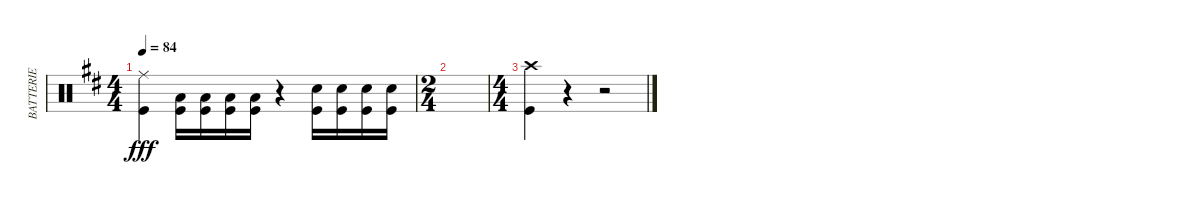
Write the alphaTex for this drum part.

\track ("BATTERIE" "BATTERIE") {instrument percussion}
\staff {score}
\articulation defaults
\ts (4 4)
\tempo 84
\clef neutral
\ks d
("Ride (middle)"{t} "Kick (hit)").4{dy fff} ("Low Tom (hit)" "Kick (hit)").16{beam Down} ("Low Tom (hit)" "Kick (hit)").16{beam Down} ("Low Tom (hit)" "Kick (hit)").16{beam Down} ("Low Tom (hit)" "Kick (hit)").16{beam Down} r.4 ("Snare (hit) 2" "Kick (hit)").16{beam Down} ("Snare (hit) 2" "Kick (hit)").16{beam Down} ("Snare (hit) 2" "Kick (hit)").16{beam Down} ("Snare (hit) 2" "Kick (hit)").16{beam Down} |
\ts (2 4)
|
\ts (4 4)
("Crash high (hit)" "Kick (hit)").4 r.4 r.2
